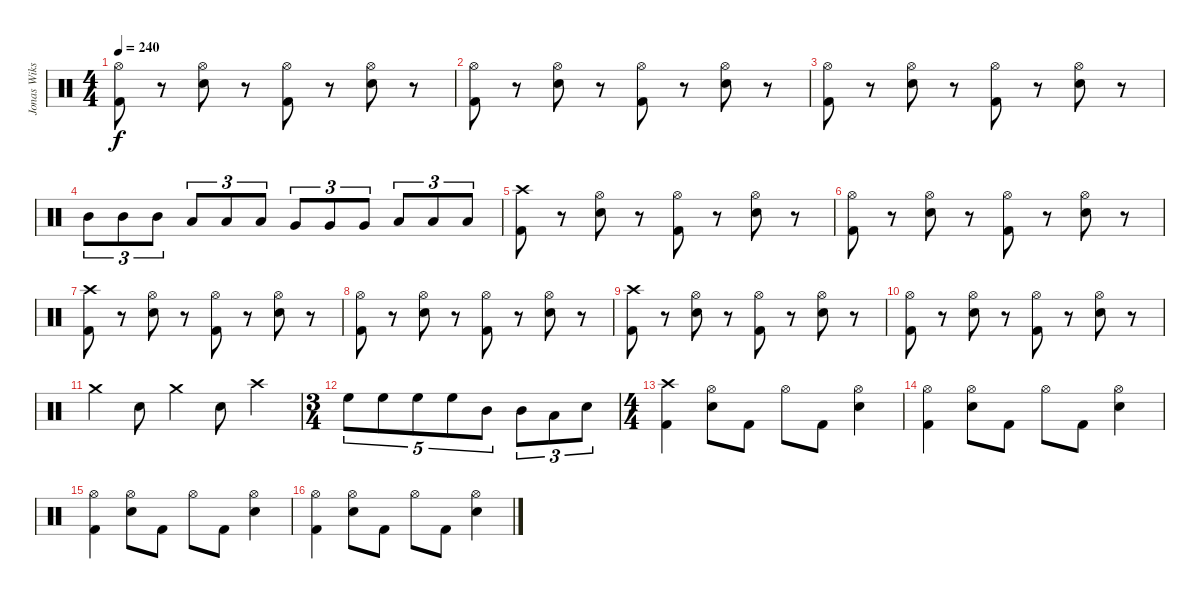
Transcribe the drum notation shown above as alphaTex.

\track ("Jonas Wikstrand" "Jonas Wiks") {instrument percussion}
\staff {score}
\articulation defaults
\ts (4 4)
\tempo 240
\clef neutral
\ks c
("Hi-Hat (open)" "Kick (hit) 2").8{dy f} r.8 ("Hi-Hat (open)" "Snare (hit) 2").8 r.8 ("Hi-Hat (open)" "Kick (hit) 2").8 r.8 ("Hi-Hat (open)" "Snare (hit) 2").8 r.8 |
("Hi-Hat (open)" "Kick (hit) 2").8 r.8 ("Hi-Hat (open)" "Snare (hit) 2").8 r.8 ("Hi-Hat (open)" "Kick (hit) 2").8 r.8 ("Hi-Hat (open)" "Snare (hit) 2").8 r.8 |
("Hi-Hat (open)" "Kick (hit) 2").8 r.8 ("Hi-Hat (open)" "Snare (hit) 2").8 r.8 ("Hi-Hat (open)" "Kick (hit) 2").8 r.8 ("Hi-Hat (open)" "Snare (hit) 2").8 r.8 |
"Mid Tom (hit)".8{tu (3 2)} "Mid Tom (hit)".8{tu (3 2)} "Mid Tom (hit)".8{tu (3 2)} "Low Tom (hit)".8{tu (3 2)} "Low Tom (hit)".8{tu (3 2)} "Low Tom (hit)".8{tu (3 2)} "Very Low Tom (hit)".8{tu (3 2)} "Very Low Tom (hit)".8{tu (3 2)} "Very Low Tom (hit)".8{tu (3 2)} "Low Floor Tom (hit)".8{tu (3 2)} "Low Floor Tom (hit)".8{tu (3 2)} "Low Floor Tom (hit)".8{tu (3 2)} |
("Crash high (hit)" "Kick (hit) 2").8 r.8 ("Hi-Hat (open)" "Snare (hit) 2").8 r.8 ("Hi-Hat (open)" "Kick (hit) 2").8 r.8 ("Hi-Hat (open)" "Snare (hit) 2").8 r.8 |
("Hi-Hat (open)" "Kick (hit) 2").8 r.8 ("Hi-Hat (open)" "Snare (hit) 2").8 r.8 ("Hi-Hat (open)" "Kick (hit) 2").8 r.8 ("Hi-Hat (open)" "Snare (hit) 2").8 r.8 |
("Crash high (hit)" "Kick (hit) 2").8 r.8 ("Hi-Hat (open)" "Snare (hit) 2").8 r.8 ("Hi-Hat (open)" "Kick (hit) 2").8 r.8 ("Hi-Hat (open)" "Snare (hit) 2").8 r.8 |
("Hi-Hat (open)" "Kick (hit) 2").8 r.8 ("Hi-Hat (open)" "Snare (hit) 2").8 r.8 ("Hi-Hat (open)" "Kick (hit) 2").8 r.8 ("Hi-Hat (open)" "Snare (hit) 2").8 r.8 |
("Crash high (hit)" "Kick (hit) 2").8 r.8 ("Hi-Hat (open)" "Snare (hit) 2").8 r.8 ("Hi-Hat (open)" "Kick (hit) 2").8 r.8 ("Hi-Hat (open)" "Snare (hit) 2").8 r.8 |
("Hi-Hat (open)" "Kick (hit) 2").8 r.8 ("Hi-Hat (open)" "Snare (hit) 2").8 r.8 ("Hi-Hat (open)" "Kick (hit) 2").8 r.8 ("Hi-Hat (open)" "Snare (hit) 2").8 r.8 |
"Crash medium (hit)".4 "Snare (hit) 2".8 "Crash medium (hit)".4 "Snare (hit) 2".8 "Crash high (hit)".4 |
\ts (3 4)
"High Floor Tom (hit)".8{tu (5 4)} "High Floor Tom (hit)".8{tu (5 4)} "High Floor Tom (hit)".8{tu (5 4)} "High Floor Tom (hit)".8{tu (5 4)} "Mid Tom (hit)".8{tu (5 4)} "Mid Tom (hit)".8{tu (3 2)} "Low Floor Tom (hit)".8{tu (3 2)} "Snare (hit) 2".8{tu (3 2)} |
\ts (4 4)
("Crash high (hit)" "Kick (hit) 2").4 ("Hi-Hat (open)" "Snare (hit) 2").8 "Kick (hit) 2".8 "Hi-Hat (open)".8 "Kick (hit) 2".8 ("Hi-Hat (open)" "Snare (hit) 2").4 |
("Hi-Hat (open)" "Kick (hit) 2").4 ("Hi-Hat (open)" "Snare (hit) 2").8 "Kick (hit) 2".8 "Hi-Hat (open)".8 "Kick (hit) 2".8 ("Hi-Hat (open)" "Snare (hit) 2").4 |
("Hi-Hat (open)" "Kick (hit) 2").4 ("Hi-Hat (open)" "Snare (hit) 2").8 "Kick (hit) 2".8 "Hi-Hat (open)".8 "Kick (hit) 2".8 ("Hi-Hat (open)" "Snare (hit) 2").4 |
("Hi-Hat (open)" "Kick (hit) 2").4 ("Hi-Hat (open)" "Snare (hit) 2").8 "Kick (hit) 2".8 "Hi-Hat (open)".8 "Kick (hit) 2".8 ("Hi-Hat (open)" "Snare (hit) 2").4
